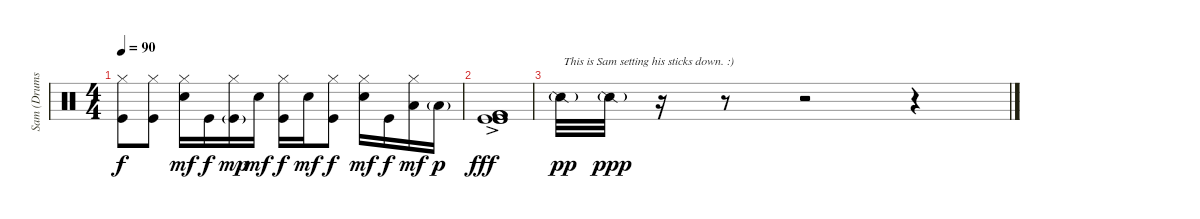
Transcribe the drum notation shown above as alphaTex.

\track ("Sam (Drums)" "Sam (Drums") {instrument percussion}
\staff {score}
\articulation defaults
\ts (4 4)
\tempo 90
\clef neutral
\ks c
("Hi-Hat (closed)" "Kick (hit)").8{dy f} ("Hi-Hat (closed)" "Kick (hit)").8 ("Hi-Hat (closed)" "Snare (hit) 2").16{dy mf} "Kick (hit)".16{dy f} ("Hi-Hat (closed)" "Kick (hit)"{g}).16{dy mp} "Snare (hit) 2".16{dy mf} ("Hi-Hat (closed)" "Kick (hit)").16{dy f} "Snare (hit) 2".16{dy mf} ("Hi-Hat (closed)" "Kick (hit)").8{dy f} ("Hi-Hat (closed)" "Snare (hit) 2").16{dy mf} "Kick (hit)".16{dy f} ("Hi-Hat (closed)" "Low Tom (hit)").16{dy mf} "Low Tom (hit)"{g}.16{dy p} |
("Kick (hit) 2" "Kick (hit) 2" "Kick (hit) 2" "Kick (hit)" "Kick (hit)" "Kick (hit)"{ac}).1{dy fff} |
"Snare (side stick) 2"{g}.32{txt "This is Sam setting his sticks down. :)" dy pp volume 9} "Snare (side stick) 2"{g}.32{dy ppp} r.16 r.8 r.2 r.4
